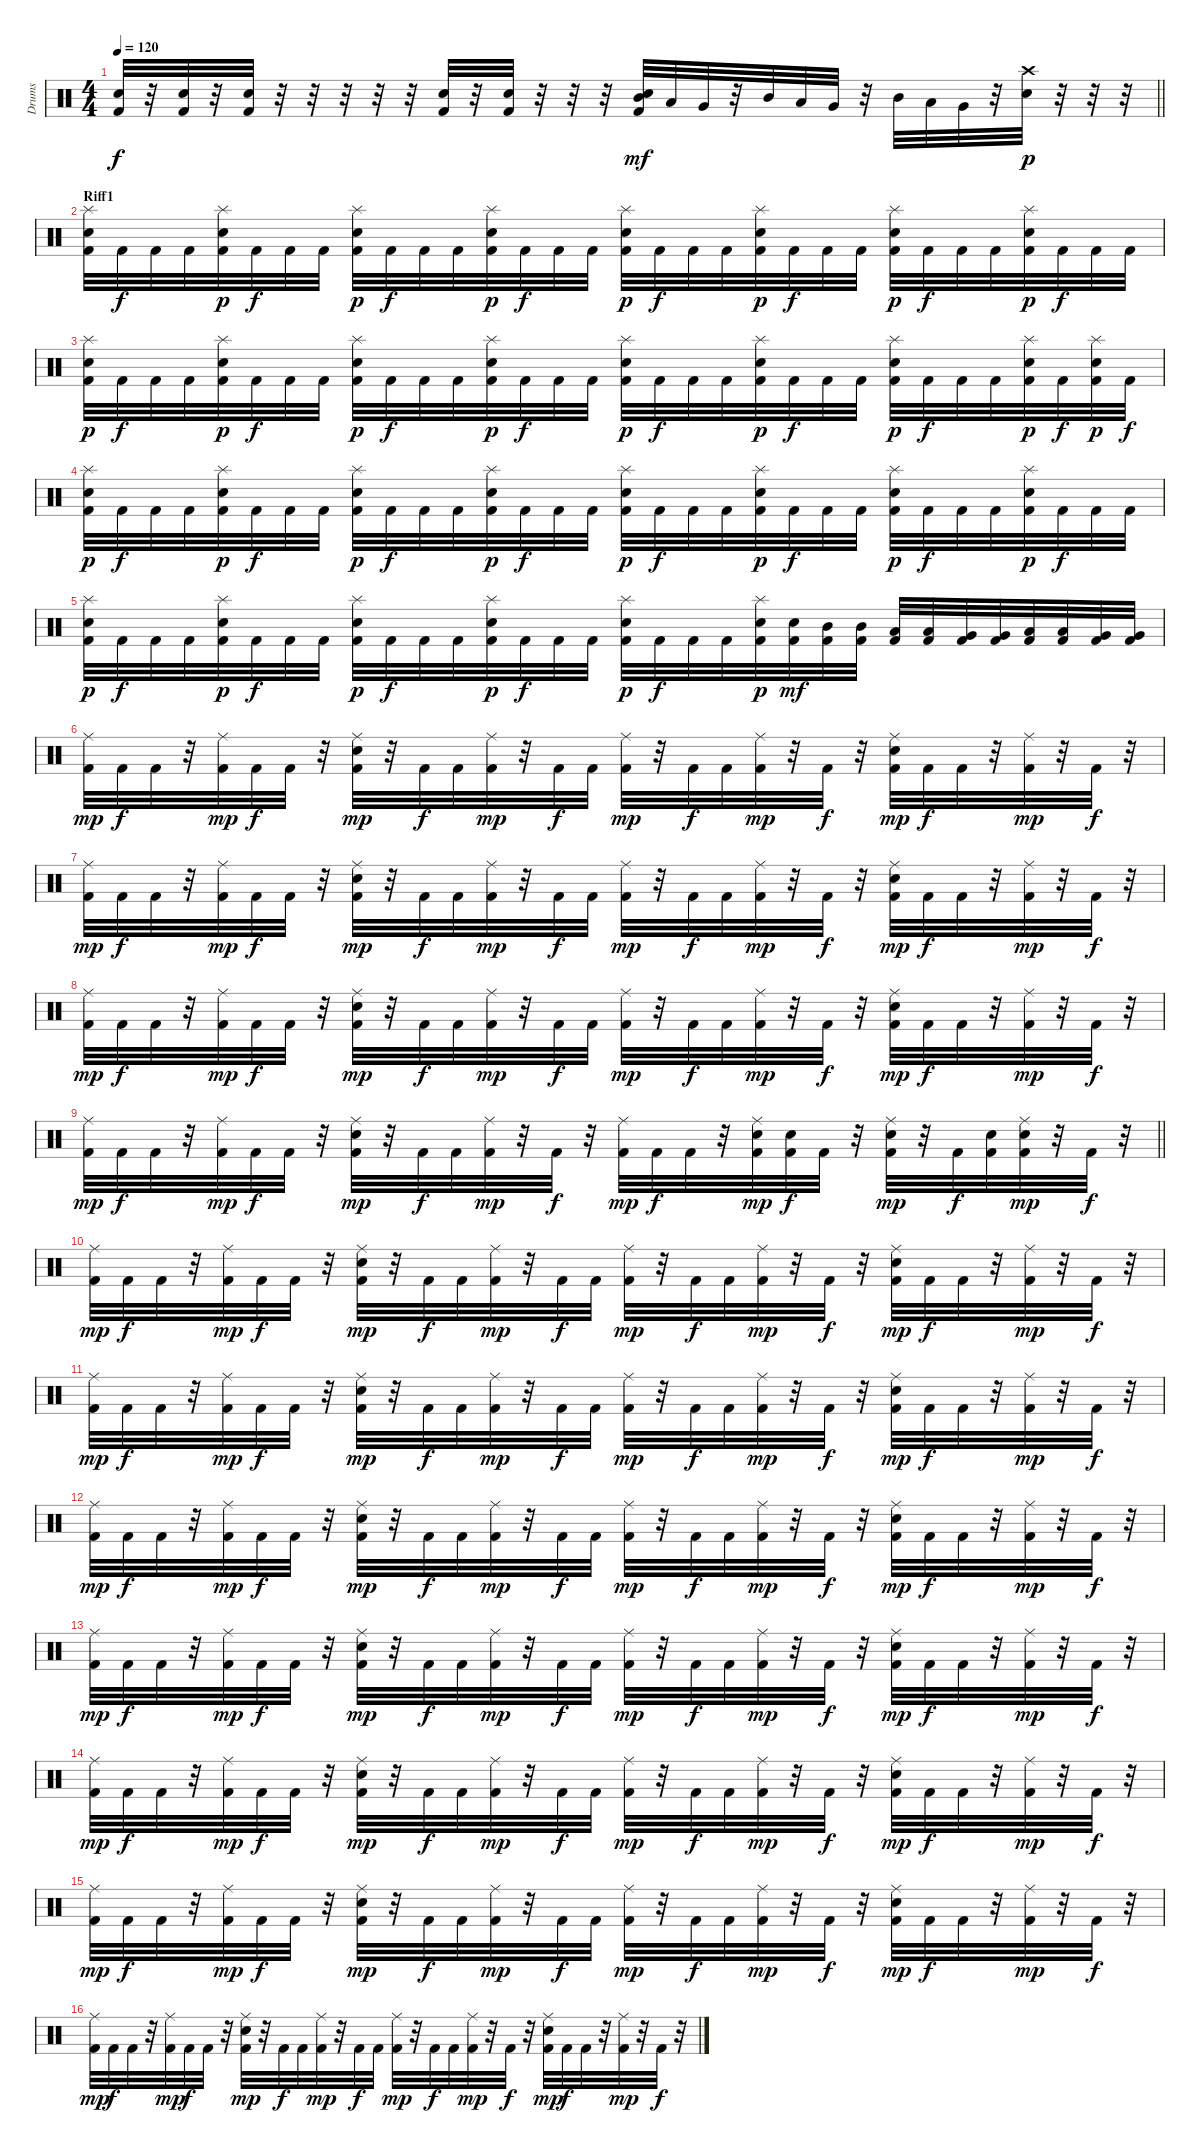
\track ("Drums" "Drums") {instrument percussion}
\staff {score}
\articulation defaults
\ts (4 4)
\tempo 120
\clef neutral
\barLineRight lightlight
\ks c
("Kick (hit) 2" "Snare (hit) 2").32{dy f} r.32 ("Kick (hit) 2" "Snare (hit) 2").32 r.32 ("Kick (hit) 2" "Snare (hit) 2").32 r.32 r.32 r.32 r.32 r.32 ("Kick (hit) 2" "Snare (hit) 2").32 r.32 ("Kick (hit) 2" "Snare (hit) 2").32 r.32 r.32 r.32 ("Kick (hit) 2" "Mid Tom (hit)" "Snare (hit) 2").32{dy mf} "Low Tom (hit)".32 "Very Low Tom (hit)".32 r.32 "Mid Tom (hit)".32 "Low Tom (hit)".32 "Very Low Tom (hit)".32 r.32 "Mid Tom (hit)".32 "Low Tom (hit)".32 "Very Low Tom (hit)".32 r.32 ("Crash high (hit)" "Snare (hit) 2").32{dy p} r.32 r.32 r.32 |
\section ("" "Riff1")
("Kick (hit) 2" "Splash (hit)" "Snare (hit) 2").32 "Kick (hit) 2".32{dy f} "Kick (hit) 2".32 "Kick (hit) 2".32 ("Kick (hit) 2" "Splash (hit)" "Snare (hit) 2").32{dy p} "Kick (hit) 2".32{dy f} "Kick (hit) 2".32 "Kick (hit) 2".32 ("Kick (hit) 2" "Splash (hit)" "Snare (hit) 2").32{dy p} "Kick (hit) 2".32{dy f} "Kick (hit) 2".32 "Kick (hit) 2".32 ("Kick (hit) 2" "Splash (hit)" "Snare (hit) 2").32{dy p} "Kick (hit) 2".32{dy f} "Kick (hit) 2".32 "Kick (hit) 2".32 ("Kick (hit) 2" "Splash (hit)" "Snare (hit) 2").32{dy p} "Kick (hit) 2".32{dy f} "Kick (hit) 2".32 "Kick (hit) 2".32 ("Kick (hit) 2" "Splash (hit)" "Snare (hit) 2").32{dy p} "Kick (hit) 2".32{dy f} "Kick (hit) 2".32 "Kick (hit) 2".32 ("Kick (hit) 2" "Splash (hit)" "Snare (hit) 2").32{dy p} "Kick (hit) 2".32{dy f} "Kick (hit) 2".32 "Kick (hit) 2".32 ("Kick (hit) 2" "Splash (hit)" "Snare (hit) 2").32{dy p} "Kick (hit) 2".32{dy f} "Kick (hit) 2".32 "Kick (hit) 2".32 |
("Kick (hit) 2" "Splash (hit)" "Snare (hit) 2").32{dy p} "Kick (hit) 2".32{dy f} "Kick (hit) 2".32 "Kick (hit) 2".32 ("Kick (hit) 2" "Splash (hit)" "Snare (hit) 2").32{dy p} "Kick (hit) 2".32{dy f} "Kick (hit) 2".32 "Kick (hit) 2".32 ("Kick (hit) 2" "Splash (hit)" "Snare (hit) 2").32{dy p} "Kick (hit) 2".32{dy f} "Kick (hit) 2".32 "Kick (hit) 2".32 ("Kick (hit) 2" "Splash (hit)" "Snare (hit) 2").32{dy p} "Kick (hit) 2".32{dy f} "Kick (hit) 2".32 "Kick (hit) 2".32 ("Kick (hit) 2" "Splash (hit)" "Snare (hit) 2").32{dy p} "Kick (hit) 2".32{dy f} "Kick (hit) 2".32 "Kick (hit) 2".32 ("Kick (hit) 2" "Splash (hit)" "Snare (hit) 2").32{dy p} "Kick (hit) 2".32{dy f} "Kick (hit) 2".32 "Kick (hit) 2".32 ("Kick (hit) 2" "Splash (hit)" "Snare (hit) 2").32{dy p} "Kick (hit) 2".32{dy f} "Kick (hit) 2".32 "Kick (hit) 2".32 ("Kick (hit) 2" "Splash (hit)" "Snare (hit) 2").32{dy p} "Kick (hit) 2".32{dy f} ("Kick (hit) 2" "Splash (hit)" "Snare (hit) 2").32{dy p} "Kick (hit) 2".32{dy f} |
("Kick (hit) 2" "Splash (hit)" "Snare (hit) 2").32{dy p} "Kick (hit) 2".32{dy f} "Kick (hit) 2".32 "Kick (hit) 2".32 ("Kick (hit) 2" "Splash (hit)" "Snare (hit) 2").32{dy p} "Kick (hit) 2".32{dy f} "Kick (hit) 2".32 "Kick (hit) 2".32 ("Kick (hit) 2" "Splash (hit)" "Snare (hit) 2").32{dy p} "Kick (hit) 2".32{dy f} "Kick (hit) 2".32 "Kick (hit) 2".32 ("Kick (hit) 2" "Splash (hit)" "Snare (hit) 2").32{dy p} "Kick (hit) 2".32{dy f} "Kick (hit) 2".32 "Kick (hit) 2".32 ("Kick (hit) 2" "Splash (hit)" "Snare (hit) 2").32{dy p} "Kick (hit) 2".32{dy f} "Kick (hit) 2".32 "Kick (hit) 2".32 ("Kick (hit) 2" "Splash (hit)" "Snare (hit) 2").32{dy p} "Kick (hit) 2".32{dy f} "Kick (hit) 2".32 "Kick (hit) 2".32 ("Kick (hit) 2" "Splash (hit)" "Snare (hit) 2").32{dy p} "Kick (hit) 2".32{dy f} "Kick (hit) 2".32 "Kick (hit) 2".32 ("Kick (hit) 2" "Splash (hit)" "Snare (hit) 2").32{dy p} "Kick (hit) 2".32{dy f} "Kick (hit) 2".32 "Kick (hit) 2".32 |
("Kick (hit) 2" "Splash (hit)" "Snare (hit) 2").32{dy p} "Kick (hit) 2".32{dy f} "Kick (hit) 2".32 "Kick (hit) 2".32 ("Kick (hit) 2" "Splash (hit)" "Snare (hit) 2").32{dy p} "Kick (hit) 2".32{dy f} "Kick (hit) 2".32 "Kick (hit) 2".32 ("Kick (hit) 2" "Splash (hit)" "Snare (hit) 2").32{dy p} "Kick (hit) 2".32{dy f} "Kick (hit) 2".32 "Kick (hit) 2".32 ("Kick (hit) 2" "Splash (hit)" "Snare (hit) 2").32{dy p} "Kick (hit) 2".32{dy f} "Kick (hit) 2".32 "Kick (hit) 2".32 ("Kick (hit) 2" "Splash (hit)" "Snare (hit) 2").32{dy p} "Kick (hit) 2".32{dy f} "Kick (hit) 2".32 "Kick (hit) 2".32 ("Kick (hit) 2" "Splash (hit)" "Snare (hit) 2").32{dy p} ("Kick (hit) 2" "Snare (hit) 2").32{dy mf} ("Kick (hit) 2" "Mid Tom (hit)").32 ("Kick (hit) 2" "Mid Tom (hit)").32 ("Kick (hit) 2" "Low Tom (hit)").32 ("Kick (hit) 2" "Low Tom (hit)").32 ("Kick (hit) 2" "Very Low Tom (hit)").32 ("Kick (hit) 2" "Very Low Tom (hit)").32 ("Kick (hit) 2" "Low Tom (hit)").32 ("Kick (hit) 2" "Low Tom (hit)").32 ("Kick (hit) 2" "Very Low Tom (hit)").32 ("Kick (hit) 2" "Very Low Tom (hit)").32 |
("Kick (hit) 2" "Ride (middle)").32{dy mp} "Kick (hit) 2".32{dy f} "Kick (hit) 2".32 r.32 ("Kick (hit) 2" "Ride (middle)").32{dy mp} "Kick (hit) 2".32{dy f} "Kick (hit) 2".32 r.32 ("Kick (hit) 2" "Ride (middle)" "Snare (hit) 2").32{dy mp} r.32 "Kick (hit) 2".32{dy f} "Kick (hit) 2".32 ("Kick (hit) 2" "Ride (middle)").32{dy mp} r.32 "Kick (hit) 2".32{dy f} "Kick (hit) 2".32 ("Kick (hit) 2" "Ride (middle)").32{dy mp} r.32 "Kick (hit) 2".32{dy f} "Kick (hit) 2".32 ("Kick (hit) 2" "Ride (middle)").32{dy mp} r.32 "Kick (hit) 2".32{dy f} r.32 ("Kick (hit) 2" "Ride (middle)" "Snare (hit) 2").32{dy mp} "Kick (hit) 2".32{dy f} "Kick (hit) 2".32 r.32 ("Kick (hit) 2" "Ride (middle)").32{dy mp} r.32 "Kick (hit) 2".32{dy f} r.32 |
("Kick (hit) 2" "Ride (middle)").32{dy mp} "Kick (hit) 2".32{dy f} "Kick (hit) 2".32 r.32 ("Kick (hit) 2" "Ride (middle)").32{dy mp} "Kick (hit) 2".32{dy f} "Kick (hit) 2".32 r.32 ("Kick (hit) 2" "Ride (middle)" "Snare (hit) 2").32{dy mp} r.32 "Kick (hit) 2".32{dy f} "Kick (hit) 2".32 ("Kick (hit) 2" "Ride (middle)").32{dy mp} r.32 "Kick (hit) 2".32{dy f} "Kick (hit) 2".32 ("Kick (hit) 2" "Ride (middle)").32{dy mp} r.32 "Kick (hit) 2".32{dy f} "Kick (hit) 2".32 ("Kick (hit) 2" "Ride (middle)").32{dy mp} r.32 "Kick (hit) 2".32{dy f} r.32 ("Kick (hit) 2" "Ride (middle)" "Snare (hit) 2").32{dy mp} "Kick (hit) 2".32{dy f} "Kick (hit) 2".32 r.32 ("Kick (hit) 2" "Ride (middle)").32{dy mp} r.32 "Kick (hit) 2".32{dy f} r.32 |
("Kick (hit) 2" "Ride (middle)").32{dy mp} "Kick (hit) 2".32{dy f} "Kick (hit) 2".32 r.32 ("Kick (hit) 2" "Ride (middle)").32{dy mp} "Kick (hit) 2".32{dy f} "Kick (hit) 2".32 r.32 ("Kick (hit) 2" "Ride (middle)" "Snare (hit) 2").32{dy mp} r.32 "Kick (hit) 2".32{dy f} "Kick (hit) 2".32 ("Kick (hit) 2" "Ride (middle)").32{dy mp} r.32 "Kick (hit) 2".32{dy f} "Kick (hit) 2".32 ("Kick (hit) 2" "Ride (middle)").32{dy mp} r.32 "Kick (hit) 2".32{dy f} "Kick (hit) 2".32 ("Kick (hit) 2" "Ride (middle)").32{dy mp} r.32 "Kick (hit) 2".32{dy f} r.32 ("Kick (hit) 2" "Ride (middle)" "Snare (hit) 2").32{dy mp} "Kick (hit) 2".32{dy f} "Kick (hit) 2".32 r.32 ("Kick (hit) 2" "Ride (middle)").32{dy mp} r.32 "Kick (hit) 2".32{dy f} r.32 |
\barLineRight lightlight
("Kick (hit) 2" "Ride (middle)").32{dy mp} "Kick (hit) 2".32{dy f} "Kick (hit) 2".32 r.32 ("Kick (hit) 2" "Ride (middle)").32{dy mp} "Kick (hit) 2".32{dy f} "Kick (hit) 2".32 r.32 ("Kick (hit) 2" "Ride (middle)" "Snare (hit) 2").32{dy mp} r.32 "Kick (hit) 2".32{dy f} "Kick (hit) 2".32 ("Kick (hit) 2" "Ride (middle)").32{dy mp} r.32 "Kick (hit) 2".32{dy f} r.32 ("Kick (hit) 2" "Ride (middle)").32{dy mp} "Kick (hit) 2".32{dy f} "Kick (hit) 2".32 r.32 ("Kick (hit) 2" "Ride (middle)" "Snare (hit) 2").32{dy mp} ("Kick (hit) 2" "Snare (hit) 2").32{dy f} "Kick (hit) 2".32 r.32 ("Kick (hit) 2" "Ride (middle)" "Snare (hit) 2").32{dy mp} r.32 "Kick (hit) 2".32{dy f} ("Kick (hit) 2" "Snare (hit) 2").32 ("Kick (hit) 2" "Ride (middle)" "Snare (hit) 2").32{dy mp} r.32 "Kick (hit) 2".32{dy f} r.32 |
("Kick (hit) 2" "Ride (middle)").32{dy mp} "Kick (hit) 2".32{dy f} "Kick (hit) 2".32 r.32 ("Kick (hit) 2" "Ride (middle)").32{dy mp} "Kick (hit) 2".32{dy f} "Kick (hit) 2".32 r.32 ("Kick (hit) 2" "Ride (middle)" "Snare (hit) 2").32{dy mp} r.32 "Kick (hit) 2".32{dy f} "Kick (hit) 2".32 ("Kick (hit) 2" "Ride (middle)").32{dy mp} r.32 "Kick (hit) 2".32{dy f} "Kick (hit) 2".32 ("Kick (hit) 2" "Ride (middle)").32{dy mp} r.32 "Kick (hit) 2".32{dy f} "Kick (hit) 2".32 ("Kick (hit) 2" "Ride (middle)").32{dy mp} r.32 "Kick (hit) 2".32{dy f} r.32 ("Kick (hit) 2" "Ride (middle)" "Snare (hit) 2").32{dy mp} "Kick (hit) 2".32{dy f} "Kick (hit) 2".32 r.32 ("Kick (hit) 2" "Ride (middle)").32{dy mp} r.32 "Kick (hit) 2".32{dy f} r.32 |
("Kick (hit) 2" "Ride (middle)").32{dy mp} "Kick (hit) 2".32{dy f} "Kick (hit) 2".32 r.32 ("Kick (hit) 2" "Ride (middle)").32{dy mp} "Kick (hit) 2".32{dy f} "Kick (hit) 2".32 r.32 ("Kick (hit) 2" "Ride (middle)" "Snare (hit) 2").32{dy mp} r.32 "Kick (hit) 2".32{dy f} "Kick (hit) 2".32 ("Kick (hit) 2" "Ride (middle)").32{dy mp} r.32 "Kick (hit) 2".32{dy f} "Kick (hit) 2".32 ("Kick (hit) 2" "Ride (middle)").32{dy mp} r.32 "Kick (hit) 2".32{dy f} "Kick (hit) 2".32 ("Kick (hit) 2" "Ride (middle)").32{dy mp} r.32 "Kick (hit) 2".32{dy f} r.32 ("Kick (hit) 2" "Ride (middle)" "Snare (hit) 2").32{dy mp} "Kick (hit) 2".32{dy f} "Kick (hit) 2".32 r.32 ("Kick (hit) 2" "Ride (middle)").32{dy mp} r.32 "Kick (hit) 2".32{dy f} r.32 |
("Kick (hit) 2" "Ride (middle)").32{dy mp} "Kick (hit) 2".32{dy f} "Kick (hit) 2".32 r.32 ("Kick (hit) 2" "Ride (middle)").32{dy mp} "Kick (hit) 2".32{dy f} "Kick (hit) 2".32 r.32 ("Kick (hit) 2" "Ride (middle)" "Snare (hit) 2").32{dy mp} r.32 "Kick (hit) 2".32{dy f} "Kick (hit) 2".32 ("Kick (hit) 2" "Ride (middle)").32{dy mp} r.32 "Kick (hit) 2".32{dy f} "Kick (hit) 2".32 ("Kick (hit) 2" "Ride (middle)").32{dy mp} r.32 "Kick (hit) 2".32{dy f} "Kick (hit) 2".32 ("Kick (hit) 2" "Ride (middle)").32{dy mp} r.32 "Kick (hit) 2".32{dy f} r.32 ("Kick (hit) 2" "Ride (middle)" "Snare (hit) 2").32{dy mp} "Kick (hit) 2".32{dy f} "Kick (hit) 2".32 r.32 ("Kick (hit) 2" "Ride (middle)").32{dy mp} r.32 "Kick (hit) 2".32{dy f} r.32 |
("Kick (hit) 2" "Ride (middle)").32{dy mp} "Kick (hit) 2".32{dy f} "Kick (hit) 2".32 r.32 ("Kick (hit) 2" "Ride (middle)").32{dy mp} "Kick (hit) 2".32{dy f} "Kick (hit) 2".32 r.32 ("Kick (hit) 2" "Ride (middle)" "Snare (hit) 2").32{dy mp} r.32 "Kick (hit) 2".32{dy f} "Kick (hit) 2".32 ("Kick (hit) 2" "Ride (middle)").32{dy mp} r.32 "Kick (hit) 2".32{dy f} "Kick (hit) 2".32 ("Kick (hit) 2" "Ride (middle)").32{dy mp} r.32 "Kick (hit) 2".32{dy f} "Kick (hit) 2".32 ("Kick (hit) 2" "Ride (middle)").32{dy mp} r.32 "Kick (hit) 2".32{dy f} r.32 ("Kick (hit) 2" "Ride (middle)" "Snare (hit) 2").32{dy mp} "Kick (hit) 2".32{dy f} "Kick (hit) 2".32 r.32 ("Kick (hit) 2" "Ride (middle)").32{dy mp} r.32 "Kick (hit) 2".32{dy f} r.32 |
("Kick (hit) 2" "Ride (middle)").32{dy mp} "Kick (hit) 2".32{dy f} "Kick (hit) 2".32 r.32 ("Kick (hit) 2" "Ride (middle)").32{dy mp} "Kick (hit) 2".32{dy f} "Kick (hit) 2".32 r.32 ("Kick (hit) 2" "Ride (middle)" "Snare (hit) 2").32{dy mp} r.32 "Kick (hit) 2".32{dy f} "Kick (hit) 2".32 ("Kick (hit) 2" "Ride (middle)").32{dy mp} r.32 "Kick (hit) 2".32{dy f} "Kick (hit) 2".32 ("Kick (hit) 2" "Ride (middle)").32{dy mp} r.32 "Kick (hit) 2".32{dy f} "Kick (hit) 2".32 ("Kick (hit) 2" "Ride (middle)").32{dy mp} r.32 "Kick (hit) 2".32{dy f} r.32 ("Kick (hit) 2" "Ride (middle)" "Snare (hit) 2").32{dy mp} "Kick (hit) 2".32{dy f} "Kick (hit) 2".32 r.32 ("Kick (hit) 2" "Ride (middle)").32{dy mp} r.32 "Kick (hit) 2".32{dy f} r.32 |
("Kick (hit) 2" "Ride (middle)").32{dy mp} "Kick (hit) 2".32{dy f} "Kick (hit) 2".32 r.32 ("Kick (hit) 2" "Ride (middle)").32{dy mp} "Kick (hit) 2".32{dy f} "Kick (hit) 2".32 r.32 ("Kick (hit) 2" "Ride (middle)" "Snare (hit) 2").32{dy mp} r.32 "Kick (hit) 2".32{dy f} "Kick (hit) 2".32 ("Kick (hit) 2" "Ride (middle)").32{dy mp} r.32 "Kick (hit) 2".32{dy f} "Kick (hit) 2".32 ("Kick (hit) 2" "Ride (middle)").32{dy mp} r.32 "Kick (hit) 2".32{dy f} "Kick (hit) 2".32 ("Kick (hit) 2" "Ride (middle)").32{dy mp} r.32 "Kick (hit) 2".32{dy f} r.32 ("Kick (hit) 2" "Ride (middle)" "Snare (hit) 2").32{dy mp} "Kick (hit) 2".32{dy f} "Kick (hit) 2".32 r.32 ("Kick (hit) 2" "Ride (middle)").32{dy mp} r.32 "Kick (hit) 2".32{dy f} r.32 |
("Kick (hit) 2" "Ride (middle)").32{dy mp} "Kick (hit) 2".32{dy f} "Kick (hit) 2".32 r.32 ("Kick (hit) 2" "Ride (middle)").32{dy mp} "Kick (hit) 2".32{dy f} "Kick (hit) 2".32 r.32 ("Kick (hit) 2" "Ride (middle)" "Snare (hit) 2").32{dy mp} r.32 "Kick (hit) 2".32{dy f} "Kick (hit) 2".32 ("Kick (hit) 2" "Ride (middle)").32{dy mp} r.32 "Kick (hit) 2".32{dy f} "Kick (hit) 2".32 ("Kick (hit) 2" "Ride (middle)").32{dy mp} r.32 "Kick (hit) 2".32{dy f} "Kick (hit) 2".32 ("Kick (hit) 2" "Ride (middle)").32{dy mp} r.32 "Kick (hit) 2".32{dy f} r.32 ("Kick (hit) 2" "Ride (middle)" "Snare (hit) 2").32{dy mp} "Kick (hit) 2".32{dy f} "Kick (hit) 2".32 r.32 ("Kick (hit) 2" "Ride (middle)").32{dy mp} r.32 "Kick (hit) 2".32{dy f} r.32
